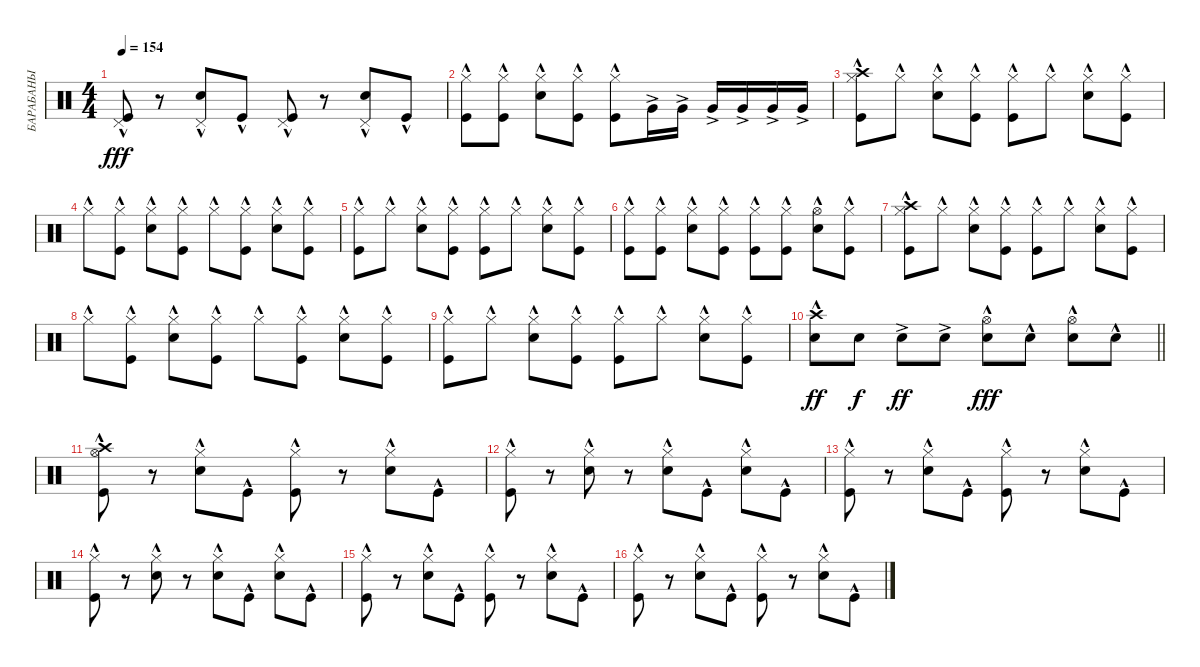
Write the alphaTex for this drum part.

\track ("БАРАБАНЫ" "БАРАБАНЫ") {instrument percussion}
\staff {score}
\articulation defaults
\ts (4 4)
\tempo 154
\clef neutral
\ks c
("Pedal Hi-Hat (hit)" "Kick (hit)"{hac}).8{dy fff} r.8 ("Pedal Hi-Hat (hit)" "Snare (hit) 2"{hac}).8 "Kick (hit)"{hac}.8 ("Pedal Hi-Hat (hit)" "Kick (hit)"{hac}).8 r.8 ("Pedal Hi-Hat (hit)" "Snare (hit) 2"{hac}).8 "Kick (hit)"{hac}.8 |
("Hi-Hat (closed)"{hac} "Kick (hit)"{hac}).8 ("Hi-Hat (closed)"{hac} "Kick (hit)"{hac}).8 ("Hi-Hat (closed)"{hac} "Snare (hit) 2"{hac}).8 ("Hi-Hat (closed)"{hac} "Kick (hit)"{hac}).8 ("Hi-Hat (closed)"{hac} "Kick (hit)"{hac}).8 "Very Low Tom (hit)"{ac}.16 "Very Low Tom (hit)"{ac}.16 "Very Low Tom (hit)"{ac}.16 "Very Low Tom (hit)"{ac}.16 "Very Low Tom (hit)"{ac}.16 "Very Low Tom (hit)"{ac}.16 |
("Hi-Hat (closed)"{hac} "Crash high (hit)"{hac} "Kick (hit)"{hac}).8 "Hi-Hat (closed)"{hac}.8 ("Hi-Hat (closed)"{hac} "Snare (hit) 2"{hac}).8 ("Hi-Hat (closed)"{hac} "Kick (hit)"{hac}).8 ("Hi-Hat (closed)"{hac} "Kick (hit)"{hac}).8 "Hi-Hat (closed)"{hac}.8 ("Hi-Hat (closed)"{hac} "Snare (hit) 2"{hac}).8 ("Hi-Hat (closed)"{hac} "Kick (hit)"{hac}).8 |
"Hi-Hat (closed)"{hac}.8 ("Hi-Hat (closed)"{hac} "Kick (hit)"{hac}).8 ("Hi-Hat (closed)"{hac} "Snare (hit) 2"{hac}).8 ("Hi-Hat (closed)"{hac} "Kick (hit)"{hac}).8 "Hi-Hat (closed)"{hac}.8 ("Hi-Hat (closed)"{hac} "Kick (hit)"{hac}).8 ("Hi-Hat (closed)"{hac} "Snare (hit) 2"{hac}).8 ("Hi-Hat (closed)"{hac} "Kick (hit)"{hac}).8 |
("Hi-Hat (closed)"{hac} "Kick (hit)"{hac}).8 "Hi-Hat (closed)"{hac}.8 ("Hi-Hat (closed)"{hac} "Snare (hit) 2"{hac}).8 ("Hi-Hat (closed)"{hac} "Kick (hit)"{hac}).8 ("Hi-Hat (closed)"{hac} "Kick (hit)"{hac}).8 "Hi-Hat (closed)"{hac}.8 ("Hi-Hat (closed)"{hac} "Snare (hit) 2"{hac}).8 ("Hi-Hat (closed)"{hac} "Kick (hit)"{hac}).8 |
("Hi-Hat (closed)"{hac} "Kick (hit)"{hac}).8 ("Hi-Hat (closed)"{hac} "Kick (hit)"{hac}).8 ("Hi-Hat (closed)"{hac} "Snare (hit) 2"{hac}).8 ("Hi-Hat (closed)"{hac} "Kick (hit)"{hac}).8 ("Hi-Hat (closed)"{hac} "Kick (hit)"{hac}).8 ("Hi-Hat (closed)"{hac} "Kick (hit)"{hac}).8 ("Hi-Hat (open)"{hac} "Snare (hit) 2"{hac}).8 ("Hi-Hat (closed)"{hac} "Kick (hit)"{hac}).8 |
("Hi-Hat (closed)"{hac} "Crash high (hit)"{hac} "Kick (hit)"{hac}).8 "Hi-Hat (closed)"{hac}.8 ("Hi-Hat (closed)"{hac} "Snare (hit) 2"{hac}).8 ("Hi-Hat (closed)"{hac} "Kick (hit)"{hac}).8 ("Hi-Hat (closed)"{hac} "Kick (hit)"{hac}).8 "Hi-Hat (closed)"{hac}.8 ("Hi-Hat (closed)"{hac} "Snare (hit) 2"{hac}).8 ("Hi-Hat (closed)"{hac} "Kick (hit)"{hac}).8 |
"Hi-Hat (closed)"{hac}.8 ("Hi-Hat (closed)"{hac} "Kick (hit)"{hac}).8 ("Hi-Hat (closed)"{hac} "Snare (hit) 2"{hac}).8 ("Hi-Hat (closed)"{hac} "Kick (hit)"{hac}).8 "Hi-Hat (closed)"{hac}.8 ("Hi-Hat (closed)"{hac} "Kick (hit)"{hac}).8 ("Hi-Hat (closed)"{hac} "Snare (hit) 2"{hac}).8 ("Hi-Hat (closed)"{hac} "Kick (hit)"{hac}).8 |
("Hi-Hat (closed)"{hac} "Kick (hit)"{hac}).8 "Hi-Hat (closed)"{hac}.8 ("Hi-Hat (closed)"{hac} "Snare (hit) 2"{hac}).8 ("Hi-Hat (closed)"{hac} "Kick (hit)"{hac}).8 ("Hi-Hat (closed)"{hac} "Kick (hit)"{hac}).8 "Hi-Hat (closed)"{hac}.8 ("Hi-Hat (closed)"{hac} "Snare (hit) 2"{hac}).8 ("Hi-Hat (closed)"{hac} "Kick (hit)"{hac}).8 |
\barLineRight lightlight
("Crash high (hit)"{hac} "Snare (hit) 2").8{dy ff} "Snare (hit) 2".8{dy f} "Snare (hit) 2"{ac}.8{dy ff} "Snare (hit) 2"{ac}.8 ("Hi-Hat (open)"{hac} "Snare (hit) 2"{hac}).8{dy fff} "Snare (hit) 2"{hac}.8 ("Hi-Hat (open)"{hac} "Snare (hit) 2"{hac}).8 "Snare (hit) 2"{hac}.8 |
("Hi-Hat (open)"{hac} "Crash high (hit)"{hac} "Kick (hit)"{hac}).8 r.8 ("Hi-Hat (closed)"{hac} "Snare (hit) 2"{hac}).8 "Kick (hit)"{hac}.8 ("Hi-Hat (closed)"{hac} "Kick (hit)"{hac}).8 r.8 ("Hi-Hat (closed)"{hac} "Snare (hit) 2"{hac}).8 "Kick (hit)"{hac}.8 |
("Hi-Hat (closed)"{hac} "Kick (hit)"{hac}).8 r.8 ("Hi-Hat (closed)"{hac} "Snare (hit) 2"{hac}).8 r.8 ("Hi-Hat (closed)"{hac} "Snare (hit) 2"{hac}).8 "Kick (hit)"{hac}.8 ("Hi-Hat (closed)"{hac} "Snare (hit) 2"{hac}).8 "Kick (hit)"{hac}.8 |
("Hi-Hat (closed)"{hac} "Kick (hit)"{hac}).8 r.8 ("Hi-Hat (closed)"{hac} "Snare (hit) 2"{hac}).8 "Kick (hit)"{hac}.8 ("Hi-Hat (closed)"{hac} "Kick (hit)"{hac}).8 r.8 ("Hi-Hat (closed)"{hac} "Snare (hit) 2"{hac}).8 "Kick (hit)"{hac}.8 |
("Hi-Hat (closed)"{hac} "Kick (hit)"{hac}).8 r.8 ("Hi-Hat (closed)"{hac} "Snare (hit) 2"{hac}).8 r.8 ("Hi-Hat (closed)"{hac} "Snare (hit) 2"{hac}).8 "Kick (hit)"{hac}.8 ("Hi-Hat (closed)"{hac} "Snare (hit) 2"{hac}).8 "Kick (hit)"{hac}.8 |
("Hi-Hat (closed)"{hac} "Kick (hit)"{hac}).8 r.8 ("Hi-Hat (closed)"{hac} "Snare (hit) 2"{hac}).8 "Kick (hit)"{hac}.8 ("Hi-Hat (closed)"{hac} "Kick (hit)"{hac}).8 r.8 ("Hi-Hat (closed)"{hac} "Snare (hit) 2"{hac}).8 "Kick (hit)"{hac}.8 |
("Hi-Hat (closed)"{hac} "Kick (hit)"{hac}).8 r.8 ("Hi-Hat (closed)"{hac} "Snare (hit) 2"{hac}).8 "Kick (hit)"{hac}.8 ("Hi-Hat (closed)"{hac} "Kick (hit)"{hac}).8 r.8 ("Hi-Hat (closed)"{hac} "Snare (hit) 2"{hac}).8 "Kick (hit)"{hac}.8
